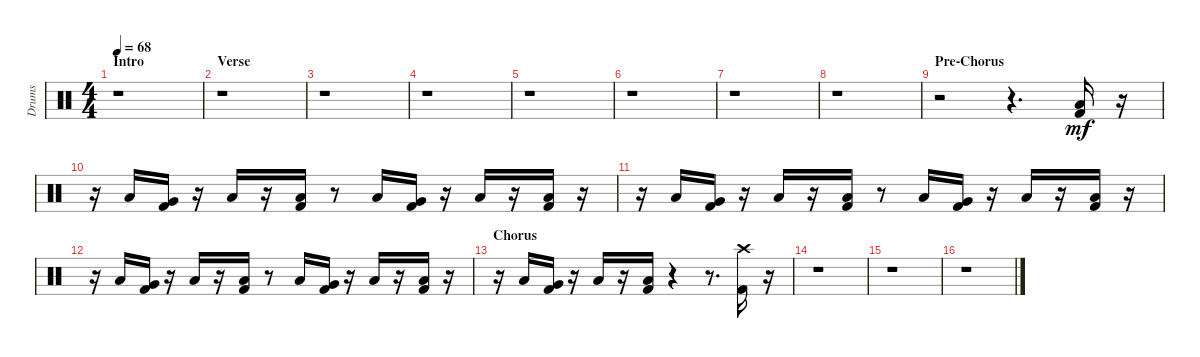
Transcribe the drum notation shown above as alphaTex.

\track ("Drums" "Drums") {instrument percussion}
\staff {score}
\articulation defaults
\ts (4 4)
\section ("" "Intro")
\tempo 68
\clef neutral
\ks aminor
r.1{dy mf} |
\section ("" "Verse")
r.1 |
r.1 |
r.1 |
r.1 |
r.1 |
r.1 |
r.1 |
\section ("" "Pre-Chorus")
r.2 r.4{d} ("Kick (hit) 2" "Low Tom (hit)").16 r.16 |
r.16 "Low Tom (hit)".16 ("Kick (hit) 2" "Very Low Tom (hit)").16 r.16 "Low Tom (hit)".16 r.16 ("Kick (hit) 2" "Low Tom (hit)").16 r.8 "Low Tom (hit)".16 ("Kick (hit) 2" "Very Low Tom (hit)").16 r.16 "Low Tom (hit)".16 r.16 ("Kick (hit) 2" "Low Tom (hit)").16 r.16 |
r.16 "Low Tom (hit)".16 ("Kick (hit) 2" "Very Low Tom (hit)").16 r.16 "Low Tom (hit)".16 r.16 ("Kick (hit) 2" "Low Tom (hit)").16 r.8 "Low Tom (hit)".16 ("Kick (hit) 2" "Very Low Tom (hit)").16 r.16 "Low Tom (hit)".16 r.16 ("Kick (hit) 2" "Low Tom (hit)").16 r.16 |
r.16 "Low Tom (hit)".16 ("Kick (hit) 2" "Very Low Tom (hit)").16 r.16 "Low Tom (hit)".16 r.16 ("Kick (hit) 2" "Low Tom (hit)").16 r.8 "Low Tom (hit)".16 ("Kick (hit) 2" "Very Low Tom (hit)").16 r.16 "Low Tom (hit)".16 r.16 ("Kick (hit) 2" "Low Tom (hit)").16 r.16 |
\section ("" "Chorus")
r.16 "Low Tom (hit)".16 ("Kick (hit) 2" "Very Low Tom (hit)").16 r.16 "Low Tom (hit)".16 r.16 ("Kick (hit) 2" "Low Tom (hit)").16 r.4 r.8{d} ("Kick (hit) 2" "Crash high (hit)").16 r.16 |
r.1 |
r.1 |
r.1
